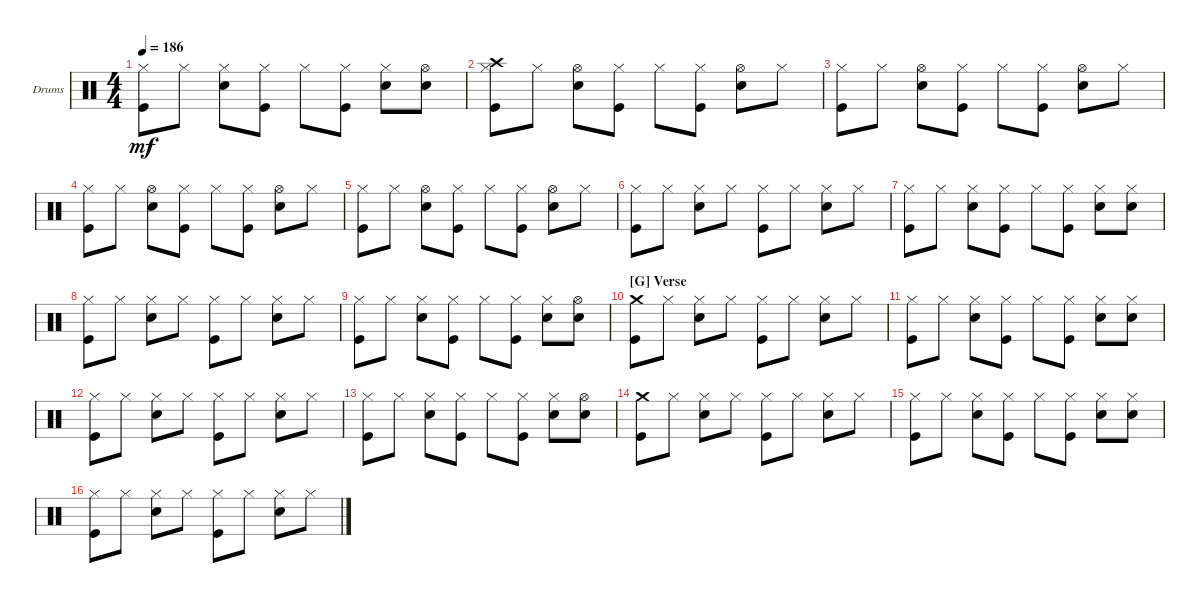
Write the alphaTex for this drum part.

\bracketExtendMode groupsimilarinstruments
\firstSystemTrackNameOrientation horizontal
\otherSystemsTrackNameOrientation horizontal
\track ("Drumkit" "Drums") {instrument percussion}
\staff {score}
\articulation defaults
\ts (4 4)
\tempo 186
\clef neutral
\ks c
("Hi-Hat (closed)" "Kick (hit)").8{dy mf} "Hi-Hat (closed)".8 ("Hi-Hat (closed)" "Snare (hit) 2").8 ("Hi-Hat (closed)" "Kick (hit)").8 "Hi-Hat (closed)".8 ("Hi-Hat (closed)" "Kick (hit)").8 ("Hi-Hat (closed)" "Snare (hit) 2").8 ("Hi-Hat (open)" "Snare (hit) 2").8 |
("Hi-Hat (closed)" "Crash high (hit)" "Kick (hit)").8 "Hi-Hat (closed)".8 ("Hi-Hat (open)" "Snare (hit) 2").8 ("Hi-Hat (closed)" "Kick (hit)").8 "Hi-Hat (closed)".8 ("Hi-Hat (closed)" "Kick (hit)").8 ("Hi-Hat (open)" "Snare (hit) 2").8 "Hi-Hat (closed)".8 |
("Hi-Hat (closed)" "Kick (hit)").8 "Hi-Hat (closed)".8 ("Hi-Hat (open)" "Snare (hit) 2").8 ("Hi-Hat (closed)" "Kick (hit)").8 "Hi-Hat (closed)".8 ("Hi-Hat (closed)" "Kick (hit)").8 ("Hi-Hat (open)" "Snare (hit) 2").8 "Hi-Hat (closed)".8 |
("Hi-Hat (closed)" "Kick (hit)").8 "Hi-Hat (closed)".8 ("Hi-Hat (open)" "Snare (hit) 2").8 ("Hi-Hat (closed)" "Kick (hit)").8 "Hi-Hat (closed)".8 ("Hi-Hat (closed)" "Kick (hit)").8 ("Hi-Hat (open)" "Snare (hit) 2").8 "Hi-Hat (closed)".8 |
("Hi-Hat (closed)" "Kick (hit)").8 "Hi-Hat (closed)".8 ("Hi-Hat (open)" "Snare (hit) 2").8 ("Hi-Hat (closed)" "Kick (hit)").8 "Hi-Hat (closed)".8 ("Hi-Hat (closed)" "Kick (hit)").8 ("Hi-Hat (open)" "Snare (hit) 2").8 "Hi-Hat (closed)".8 |
("Hi-Hat (closed)" "Kick (hit)").8 "Hi-Hat (closed)".8 ("Hi-Hat (closed)" "Snare (hit) 2").8 "Hi-Hat (closed)".8 ("Hi-Hat (closed)" "Kick (hit)").8 "Hi-Hat (closed)".8 ("Hi-Hat (closed)" "Snare (hit) 2").8 "Hi-Hat (closed)".8 |
("Hi-Hat (closed)" "Kick (hit)").8 "Hi-Hat (closed)".8 ("Hi-Hat (closed)" "Snare (hit) 2").8 ("Hi-Hat (closed)" "Kick (hit)").8 "Hi-Hat (closed)".8 ("Hi-Hat (closed)" "Kick (hit)").8 ("Hi-Hat (closed)" "Snare (hit) 2").8 ("Hi-Hat (closed)" "Snare (hit) 2").8 |
("Hi-Hat (closed)" "Kick (hit)").8 "Hi-Hat (closed)".8 ("Hi-Hat (closed)" "Snare (hit) 2").8 "Hi-Hat (closed)".8 ("Hi-Hat (closed)" "Kick (hit)").8 "Hi-Hat (closed)".8 ("Hi-Hat (closed)" "Snare (hit) 2").8 "Hi-Hat (closed)".8 |
("Hi-Hat (closed)" "Kick (hit)").8 "Hi-Hat (closed)".8 ("Hi-Hat (closed)" "Snare (hit) 2").8 ("Hi-Hat (closed)" "Kick (hit)").8 "Hi-Hat (closed)".8 ("Hi-Hat (closed)" "Kick (hit)").8 ("Hi-Hat (closed)" "Snare (hit) 2").8 ("Hi-Hat (open)" "Snare (hit) 2").8 |
\section ("G" "Verse")
("Crash medium (hit)" "Kick (hit)").8 "Hi-Hat (closed)".8 ("Hi-Hat (closed)" "Snare (hit) 2").8 "Hi-Hat (closed)".8 ("Hi-Hat (closed)" "Kick (hit)").8 "Hi-Hat (closed)".8 ("Hi-Hat (closed)" "Snare (hit) 2").8 "Hi-Hat (closed)".8 |
("Hi-Hat (closed)" "Kick (hit)").8 "Hi-Hat (closed)".8 ("Hi-Hat (closed)" "Snare (hit) 2").8 ("Hi-Hat (closed)" "Kick (hit)").8 "Hi-Hat (closed)".8 ("Hi-Hat (closed)" "Kick (hit)").8 ("Hi-Hat (closed)" "Snare (hit) 2").8 ("Hi-Hat (closed)" "Snare (hit) 2").8 |
("Hi-Hat (closed)" "Kick (hit)").8 "Hi-Hat (closed)".8 ("Hi-Hat (closed)" "Snare (hit) 2").8 "Hi-Hat (closed)".8 ("Hi-Hat (closed)" "Kick (hit)").8 "Hi-Hat (closed)".8 ("Hi-Hat (closed)" "Snare (hit) 2").8 "Hi-Hat (closed)".8 |
("Hi-Hat (closed)" "Kick (hit)").8 "Hi-Hat (closed)".8 ("Hi-Hat (closed)" "Snare (hit) 2").8 ("Hi-Hat (closed)" "Kick (hit)").8 "Hi-Hat (closed)".8 ("Hi-Hat (closed)" "Kick (hit)").8 ("Hi-Hat (closed)" "Snare (hit) 2").8 ("Hi-Hat (open)" "Snare (hit) 2").8 |
("Crash medium (hit)" "Kick (hit)").8 "Hi-Hat (closed)".8 ("Hi-Hat (closed)" "Snare (hit) 2").8 "Hi-Hat (closed)".8 ("Hi-Hat (closed)" "Kick (hit)").8 "Hi-Hat (closed)".8 ("Hi-Hat (closed)" "Snare (hit) 2").8 "Hi-Hat (closed)".8 |
("Hi-Hat (closed)" "Kick (hit)").8 "Hi-Hat (closed)".8 ("Hi-Hat (closed)" "Snare (hit) 2").8 ("Hi-Hat (closed)" "Kick (hit)").8 "Hi-Hat (closed)".8 ("Hi-Hat (closed)" "Kick (hit)").8 ("Hi-Hat (closed)" "Snare (hit) 2").8 ("Hi-Hat (closed)" "Snare (hit) 2").8 |
("Hi-Hat (closed)" "Kick (hit)").8 "Hi-Hat (closed)".8 ("Hi-Hat (closed)" "Snare (hit) 2").8 "Hi-Hat (closed)".8 ("Hi-Hat (closed)" "Kick (hit)").8 "Hi-Hat (closed)".8 ("Hi-Hat (closed)" "Snare (hit) 2").8 "Hi-Hat (closed)".8
